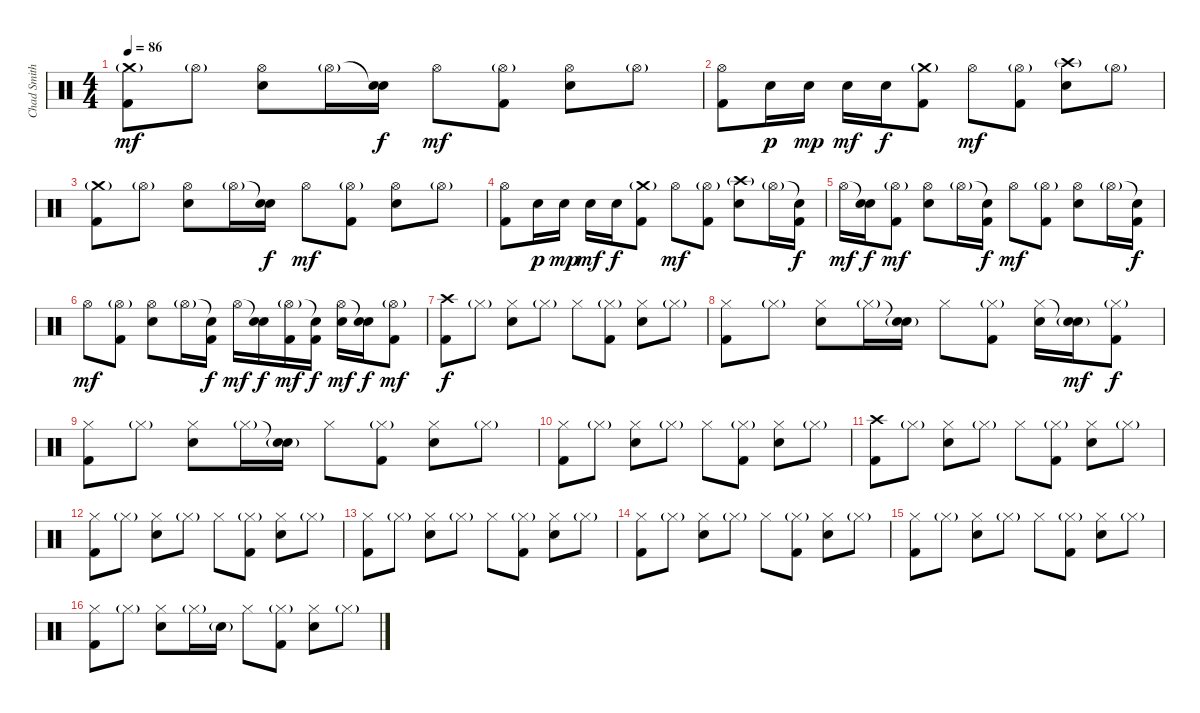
\track ("Chad Smith" "Chad Smith") {instrument percussion}
\staff {score}
\articulation defaults
\ts (4 4)
\tempo 86
\clef neutral
\ks c
("Crash medium (hit)"{g} "Kick (hit) 2").8{dy mf} "Hi-Hat (open)"{g}.8 ("Hi-Hat (open)" "Electric Snare (hit)").8 "Hi-Hat (open)"{g}.16 ("Snare (hit)"{t} "Electric Snare (hit)").16{dy f} "Hi-Hat (open)".8{dy mf} ("Hi-Hat (open)"{g} "Kick (hit) 2").8 ("Hi-Hat (open)" "Electric Snare (hit)").8 "Hi-Hat (open)"{g}.8 |
("Hi-Hat (open)" "Kick (hit) 2").8 "Electric Snare (hit)".16{dy p} "Electric Snare (hit)".16{dy mp} "Electric Snare (hit)".16{dy mf} "Electric Snare (hit)".16{dy f} ("Crash medium (hit)"{g} "Kick (hit) 2").8 "Hi-Hat (open)".8{dy mf} ("Hi-Hat (open)"{g} "Kick (hit) 2").8 ("Crash high (hit)"{g} "Electric Snare (hit)").8 "Hi-Hat (open)"{g}.8 |
("Crash medium (hit)"{g} "Kick (hit) 2").8 "Hi-Hat (open)"{g}.8 ("Hi-Hat (open)" "Electric Snare (hit)").8 "Hi-Hat (open)"{g}.16 ("Snare (hit)"{t} "Electric Snare (hit)").16{dy f} "Hi-Hat (open)".8{dy mf} ("Hi-Hat (open)"{g} "Kick (hit) 2").8 ("Hi-Hat (open)" "Electric Snare (hit)").8 "Hi-Hat (open)"{g}.8 |
("Hi-Hat (open)" "Kick (hit) 2").8 "Electric Snare (hit)".16{dy p} "Electric Snare (hit)".16{dy mp} "Electric Snare (hit)".16{dy mf} "Electric Snare (hit)".16{dy f} ("Crash medium (hit)"{g} "Kick (hit) 2").8 "Hi-Hat (open)".8{dy mf} ("Hi-Hat (open)"{g} "Kick (hit) 2").8 ("Crash high (hit)"{g} "Electric Snare (hit)").8 "Hi-Hat (open)"{g}.16 ("Snare (hit)"{t} "Kick (hit) 2").16{dy f} |
"Hi-Hat (open)".16{dy mf} ("Snare (hit)"{t} "Electric Snare (hit)").16{dy f} ("Hi-Hat (open)"{g} "Kick (hit) 2").8{dy mf} ("Hi-Hat (open)" "Electric Snare (hit)").8 "Hi-Hat (open)"{g}.16 ("Snare (hit)"{t} "Kick (hit) 2").16{dy f} "Hi-Hat (open)".8{dy mf} ("Hi-Hat (open)"{g} "Kick (hit) 2").8 ("Hi-Hat (open)" "Electric Snare (hit)").8 "Hi-Hat (open)"{g}.16 ("Snare (hit)"{t} "Kick (hit) 2").16{dy f} |
"Hi-Hat (open)".8{dy mf} ("Hi-Hat (open)"{g} "Kick (hit) 2").8 ("Hi-Hat (open)" "Electric Snare (hit)").8 "Hi-Hat (open)"{g}.16 ("Snare (hit)"{t} "Kick (hit) 2").16{dy f} "Hi-Hat (open)".16{dy mf} ("Snare (hit)"{t} "Electric Snare (hit)").16{dy f} ("Hi-Hat (open)"{g} "Kick (hit) 2").16{dy mf} ("Snare (hit)"{t} "Kick (hit) 2").16{dy f} ("Hi-Hat (open)" "Electric Snare (hit)").16{dy mf} ("Snare (hit)"{t} "Electric Snare (hit)").16{dy f} ("Hi-Hat (open)"{g} "Kick (hit) 2").8{dy mf} |
("Crash high (hit)" "Kick (hit) 2").8{dy f} "Hi-Hat (closed)"{g}.8 ("Hi-Hat (closed)" "Electric Snare (hit)").8 "Hi-Hat (closed)"{g}.8 "Hi-Hat (closed)".8 ("Hi-Hat (closed)"{g} "Kick (hit) 2").8 ("Hi-Hat (closed)" "Electric Snare (hit)").8 "Hi-Hat (closed)"{g}.8 |
("Hi-Hat (closed)" "Kick (hit) 2").8 "Hi-Hat (closed)"{g}.8 ("Hi-Hat (closed)" "Electric Snare (hit)").8 "Hi-Hat (closed)"{g}.16 ("Snare (hit)"{t} "Electric Snare (hit)"{g}).16 "Hi-Hat (closed)".8 ("Hi-Hat (closed)"{g} "Kick (hit) 2").8 ("Hi-Hat (closed)" "Electric Snare (hit)").16 ("Snare (hit)"{t} "Electric Snare (hit)"{g}).16{dy mf} ("Hi-Hat (closed)"{g} "Kick (hit) 2").8{dy f} |
("Hi-Hat (closed)" "Kick (hit) 2").8 "Hi-Hat (closed)"{g}.8 ("Hi-Hat (closed)" "Electric Snare (hit)").8 "Hi-Hat (closed)"{g}.16 ("Snare (hit)"{t} "Electric Snare (hit)"{g}).16 "Hi-Hat (closed)".8 ("Hi-Hat (closed)"{g} "Kick (hit) 2").8 ("Hi-Hat (closed)" "Electric Snare (hit)").8 "Hi-Hat (closed)"{g}.8 |
("Hi-Hat (closed)" "Kick (hit) 2").8 "Hi-Hat (closed)"{g}.8 ("Hi-Hat (closed)" "Electric Snare (hit)").8 "Hi-Hat (closed)"{g}.8 "Hi-Hat (closed)".8 ("Hi-Hat (closed)"{g} "Kick (hit) 2").8 ("Hi-Hat (closed)" "Electric Snare (hit)").8 "Hi-Hat (closed)"{g}.8 |
("Crash high (hit)" "Kick (hit) 2").8 "Hi-Hat (closed)"{g}.8 ("Hi-Hat (closed)" "Electric Snare (hit)").8 "Hi-Hat (closed)"{g}.8 "Hi-Hat (closed)".8 ("Hi-Hat (closed)"{g} "Kick (hit) 2").8 ("Hi-Hat (closed)" "Electric Snare (hit)").8 "Hi-Hat (closed)"{g}.8 |
("Hi-Hat (closed)" "Kick (hit) 2").8 "Hi-Hat (closed)"{g}.8 ("Hi-Hat (closed)" "Electric Snare (hit)").8 "Hi-Hat (closed)"{g}.8 "Hi-Hat (closed)".8 ("Hi-Hat (closed)"{g} "Kick (hit) 2").8 ("Hi-Hat (closed)" "Electric Snare (hit)").8 "Hi-Hat (closed)"{g}.8 |
("Hi-Hat (closed)" "Kick (hit) 2").8 "Hi-Hat (closed)"{g}.8 ("Hi-Hat (closed)" "Electric Snare (hit)").8 "Hi-Hat (closed)"{g}.8 "Hi-Hat (closed)".8 ("Hi-Hat (closed)"{g} "Kick (hit) 2").8 ("Hi-Hat (closed)" "Electric Snare (hit)").8 "Hi-Hat (closed)"{g}.8 |
("Hi-Hat (closed)" "Kick (hit) 2").8 "Hi-Hat (closed)"{g}.8 ("Hi-Hat (closed)" "Electric Snare (hit)").8 "Hi-Hat (closed)"{g}.8 "Hi-Hat (closed)".8 ("Hi-Hat (closed)"{g} "Kick (hit) 2").8 ("Hi-Hat (closed)" "Electric Snare (hit)").8 "Hi-Hat (closed)"{g}.8 |
("Hi-Hat (closed)" "Kick (hit) 2").8 "Hi-Hat (closed)"{g}.8 ("Hi-Hat (closed)" "Electric Snare (hit)").8 "Hi-Hat (closed)"{g}.8 "Hi-Hat (closed)".8 ("Hi-Hat (closed)"{g} "Kick (hit) 2").8 ("Hi-Hat (closed)" "Electric Snare (hit)").8 "Hi-Hat (closed)"{g}.8 |
("Hi-Hat (closed)" "Kick (hit) 2").8 "Hi-Hat (closed)"{g}.8 ("Hi-Hat (closed)" "Electric Snare (hit)").8 "Hi-Hat (closed)"{g}.16 "Electric Snare (hit)"{g}.16 "Hi-Hat (closed)".8 ("Hi-Hat (closed)"{g} "Kick (hit) 2").8 ("Hi-Hat (closed)" "Electric Snare (hit)").8 "Hi-Hat (closed)"{g}.8
